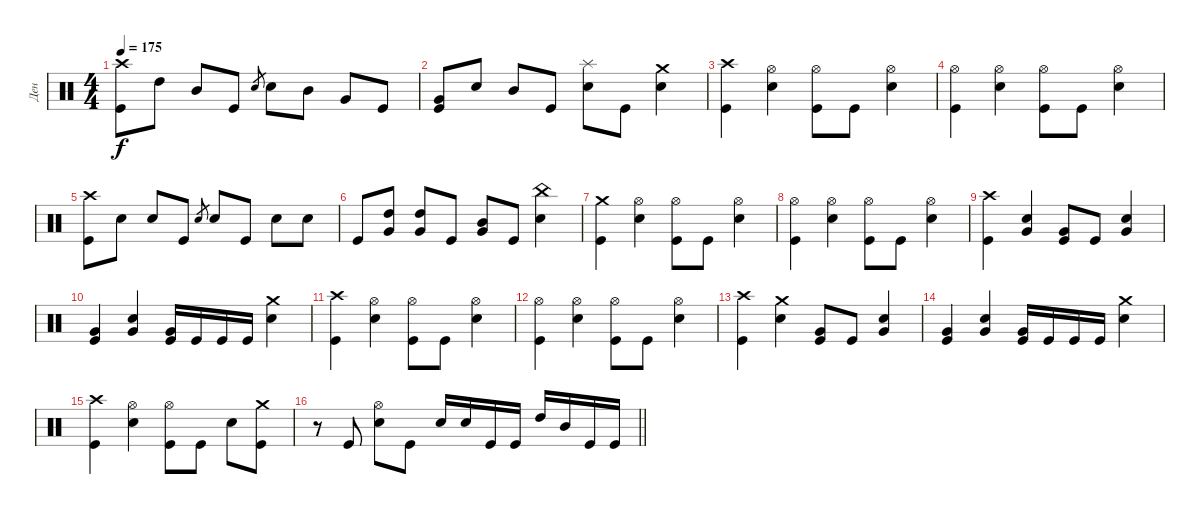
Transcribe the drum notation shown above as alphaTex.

\track ("Ден" "Ден") {instrument percussion}
\staff {score}
\articulation defaults
\ts (4 4)
\tempo 175
\clef neutral
\ks c
("Crash high (hit)" "Kick (hit)").8{dy f} "High Tom (hit)".8 "Mid Tom (hit)".8 "Kick (hit)".8 "Snare (hit) 2".8{gr} "Snare (hit) 2".8 "Mid Tom (hit)".8 "Very Low Tom (hit)".8 "Kick (hit)".8 |
("Very Low Tom (hit)" "Kick (hit)").8 "Snare (hit) 2".8 "Mid Tom (hit)".8 "Kick (hit)".8 ("Splash (hit)" "Snare (hit) 2").8 "Kick (hit)".8 ("Crash medium (hit)" "Snare (hit) 2").4 |
\ks aminor
("Crash high (hit)" "Kick (hit)").4 ("Hi-Hat (open)" "Snare (hit) 2").4 ("Hi-Hat (open)" "Kick (hit)").8 "Kick (hit)".8 ("Hi-Hat (open)" "Snare (hit) 2").4 |
("Hi-Hat (open)" "Kick (hit)").4 ("Hi-Hat (open)" "Snare (hit) 2").4 ("Hi-Hat (open)" "Kick (hit)").8 "Kick (hit)".8 ("Hi-Hat (open)" "Snare (hit) 2").4 |
\ks c
("Crash high (hit)" "Kick (hit)").8 "Snare (hit) 2".8 "Snare (hit) 2".8 "Kick (hit)".8 "Snare (hit) 2".8{gr} "Snare (hit) 2".8 "Kick (hit)".8 "Snare (hit) 2".8 "Snare (hit) 2".8 |
"Kick (hit)".8 ("High Tom (hit)" "Very Low Tom (hit)").8{bu 480} ("High Tom (hit)" "Very Low Tom (hit)").8{bu 480} "Kick (hit)".8 ("Mid Tom (hit)" "Very Low Tom (hit)").8{bu 480} "Kick (hit)".8 ("China (hit)" "Snare (hit) 2").4 |
("Crash medium (hit)" "Kick (hit)").4 ("Hi-Hat (open)" "Snare (hit) 2").4 ("Hi-Hat (open)" "Kick (hit)").8 "Kick (hit)".8 ("Hi-Hat (open)" "Snare (hit) 2").4 |
("Hi-Hat (open)" "Kick (hit)").4 ("Hi-Hat (open)" "Snare (hit) 2").4 ("Hi-Hat (open)" "Kick (hit)").8 "Kick (hit)".8 ("Hi-Hat (open)" "Snare (hit) 2").4 |
("Crash high (hit)" "Kick (hit)").4 ("Snare (hit) 2" "Very Low Tom (hit)").4 ("Very Low Tom (hit)" "Kick (hit)").8 "Kick (hit)".8 ("Snare (hit) 2" "Very Low Tom (hit)").4 |
("Very Low Tom (hit)" "Kick (hit)").4 ("Snare (hit) 2" "Very Low Tom (hit)").4 ("Very Low Tom (hit)" "Kick (hit)").16 "Kick (hit)".16 "Kick (hit)".16 "Kick (hit)".16 ("Crash medium (hit)" "Snare (hit) 2").4 |
("Crash high (hit)" "Kick (hit)").4 ("Hi-Hat (open)" "Snare (hit) 2").4 ("Hi-Hat (open)" "Kick (hit)").8 "Kick (hit)".8 ("Hi-Hat (open)" "Snare (hit) 2").4 |
("Hi-Hat (open)" "Kick (hit)").4 ("Hi-Hat (open)" "Snare (hit) 2").4 ("Hi-Hat (open)" "Kick (hit)").8 "Kick (hit)".8 ("Hi-Hat (open)" "Snare (hit) 2").4 |
("Crash high (hit)" "Kick (hit)").4 ("Crash medium (hit)" "Snare (hit) 2").4 ("Very Low Tom (hit)" "Kick (hit)").8 "Kick (hit)".8 ("Snare (hit) 2" "Very Low Tom (hit)").4 |
("Very Low Tom (hit)" "Kick (hit)").4 ("Snare (hit) 2" "Very Low Tom (hit)").4 ("Very Low Tom (hit)" "Kick (hit)").16 "Kick (hit)".16 "Kick (hit)".16 "Kick (hit)".16 ("Crash medium (hit)" "Snare (hit) 2").4 |
("Crash high (hit)" "Kick (hit)").4 ("Hi-Hat (open)" "Snare (hit) 2").4 ("Hi-Hat (open)" "Kick (hit)").8 "Kick (hit)".8 "Snare (hit) 2".8 ("Crash medium (hit)" "Kick (hit)").8 |
\barLineRight lightlight
r.8 "Kick (hit)".8 ("Hi-Hat (open)" "Snare (hit) 2").8 "Kick (hit)".8 "Snare (hit) 2".16 "Snare (hit) 2".16 "Kick (hit)".16 "Kick (hit)".16 "High Tom (hit)".16 "Mid Tom (hit)".16 "Kick (hit)".16 "Kick (hit)".16
